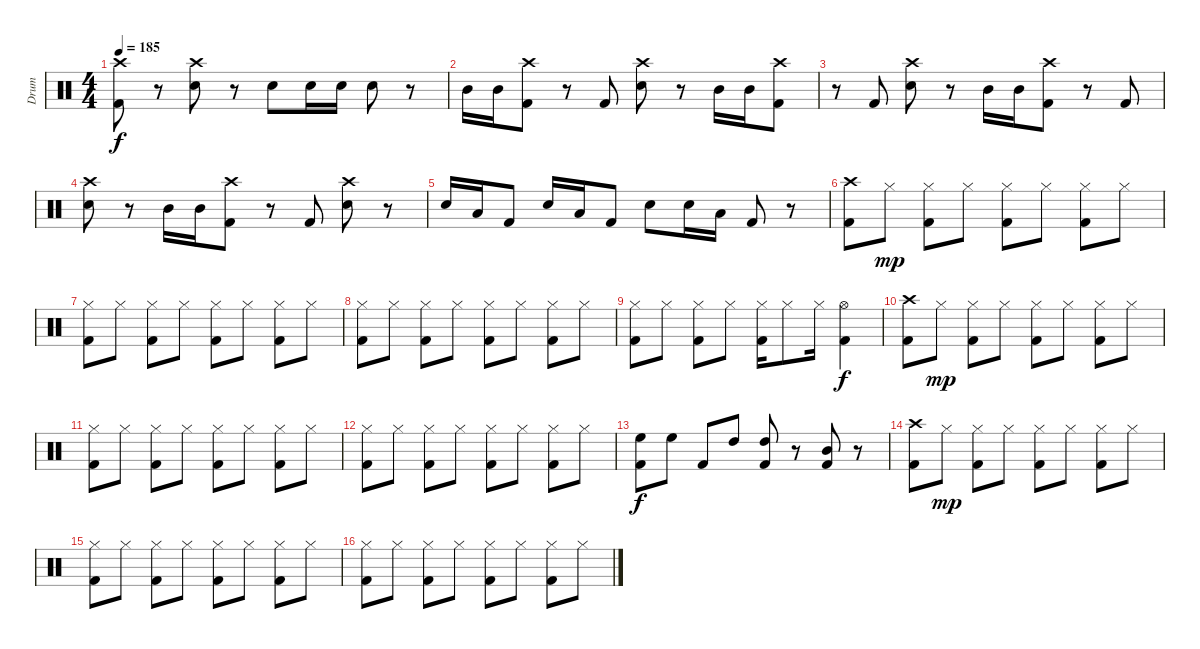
\track ("Drum" "Drum") {instrument percussion}
\staff {score}
\articulation defaults
\ts (4 4)
\tempo 185
\clef neutral
\ks c
("Crash high (hit)" "Kick (hit) 2").8{dy f} r.8 ("Crash high (hit)" "Electric Snare (hit)").8 r.8 "Electric Snare (hit)".8 "Electric Snare (hit)".16 "Electric Snare (hit)".16 "Electric Snare (hit)".8 r.8 |
"Mid Tom (hit)".16 "Mid Tom (hit)".16 ("Crash high (hit)" "Kick (hit) 2").8 r.8 "Kick (hit) 2".8 ("Crash high (hit)" "Electric Snare (hit)").8 r.8 "Mid Tom (hit)".16 "Mid Tom (hit)".16 ("Crash high (hit)" "Kick (hit) 2").8 |
r.8 "Kick (hit) 2".8 ("Crash high (hit)" "Electric Snare (hit)").8 r.8 "Mid Tom (hit)".16 "Mid Tom (hit)".16 ("Kick (hit) 2" "Crash high (hit)").8 r.8 "Kick (hit) 2".8 |
("Crash high (hit)" "Electric Snare (hit)").8 r.8 "Mid Tom (hit)".16 "Mid Tom (hit)".16 ("Crash high (hit)" "Kick (hit) 2").8 r.8 "Kick (hit) 2".8 ("Crash high (hit)" "Electric Snare (hit)").8 r.8 |
"Electric Snare (hit)".16 "Low Tom (hit)".16 "Kick (hit) 2".8 "Electric Snare (hit)".16 "Low Tom (hit)".16 "Kick (hit) 2".8 "Electric Snare (hit)".8 "Electric Snare (hit)".16 "Low Tom (hit)".16 "Kick (hit) 2".8 r.8 |
("Crash high (hit)" "Kick (hit) 2").8 "Hi-Hat (closed)".8{dy mp} ("Hi-Hat (closed)" "Kick (hit) 2").8 "Hi-Hat (closed)".8 ("Hi-Hat (closed)" "Kick (hit) 2").8 "Hi-Hat (closed)".8 ("Hi-Hat (closed)" "Kick (hit) 2").8 "Hi-Hat (closed)".8 |
("Hi-Hat (closed)" "Kick (hit) 2").8 "Hi-Hat (closed)".8 ("Hi-Hat (closed)" "Kick (hit) 2").8 "Hi-Hat (closed)".8 ("Hi-Hat (closed)" "Kick (hit) 2").8 "Hi-Hat (closed)".8 ("Hi-Hat (closed)" "Kick (hit) 2").8 "Hi-Hat (closed)".8 |
("Hi-Hat (closed)" "Kick (hit) 2").8 "Hi-Hat (closed)".8 ("Hi-Hat (closed)" "Kick (hit) 2").8 "Hi-Hat (closed)".8 ("Hi-Hat (closed)" "Kick (hit) 2").8 "Hi-Hat (closed)".8 ("Hi-Hat (closed)" "Kick (hit) 2").8 "Hi-Hat (closed)".8 |
("Hi-Hat (closed)" "Kick (hit) 2").8 "Hi-Hat (closed)".8 ("Hi-Hat (closed)" "Kick (hit) 2").8 "Hi-Hat (closed)".8 ("Kick (hit) 2" "Hi-Hat (closed)").16 "Hi-Hat (closed)".8 "Hi-Hat (closed)".16 ("Kick (hit) 2" "Hi-Hat (open)").4{dy f} |
("Crash high (hit)" "Kick (hit) 2").8 "Hi-Hat (closed)".8{dy mp} ("Hi-Hat (closed)" "Kick (hit) 2").8 "Hi-Hat (closed)".8 ("Hi-Hat (closed)" "Kick (hit) 2").8 "Hi-Hat (closed)".8 ("Hi-Hat (closed)" "Kick (hit) 2").8 "Hi-Hat (closed)".8 |
("Hi-Hat (closed)" "Kick (hit) 2").8 "Hi-Hat (closed)".8 ("Hi-Hat (closed)" "Kick (hit) 2").8 "Hi-Hat (closed)".8 ("Hi-Hat (closed)" "Kick (hit) 2").8 "Hi-Hat (closed)".8 ("Hi-Hat (closed)" "Kick (hit) 2").8 "Hi-Hat (closed)".8 |
("Hi-Hat (closed)" "Kick (hit) 2").8 "Hi-Hat (closed)".8 ("Hi-Hat (closed)" "Kick (hit) 2").8 "Hi-Hat (closed)".8 ("Hi-Hat (closed)" "Kick (hit) 2").8 "Hi-Hat (closed)".8 ("Hi-Hat (closed)" "Kick (hit) 2").8 "Hi-Hat (closed)".8 |
("High Floor Tom (hit)" "Kick (hit) 2").8{dy f} "High Floor Tom (hit)".8 "Kick (hit) 2".8 "High Tom (hit)".8 ("High Tom (hit)" "Kick (hit) 2").8 r.8 ("Mid Tom (hit)" "Kick (hit) 2").8 r.8 |
("Crash high (hit)" "Kick (hit) 2").8 "Hi-Hat (closed)".8{dy mp} ("Hi-Hat (closed)" "Kick (hit) 2").8 "Hi-Hat (closed)".8 ("Hi-Hat (closed)" "Kick (hit) 2").8 "Hi-Hat (closed)".8 ("Hi-Hat (closed)" "Kick (hit) 2").8 "Hi-Hat (closed)".8 |
("Hi-Hat (closed)" "Kick (hit) 2").8 "Hi-Hat (closed)".8 ("Hi-Hat (closed)" "Kick (hit) 2").8 "Hi-Hat (closed)".8 ("Hi-Hat (closed)" "Kick (hit) 2").8 "Hi-Hat (closed)".8 ("Hi-Hat (closed)" "Kick (hit) 2").8 "Hi-Hat (closed)".8 |
("Hi-Hat (closed)" "Kick (hit) 2").8 "Hi-Hat (closed)".8 ("Hi-Hat (closed)" "Kick (hit) 2").8 "Hi-Hat (closed)".8 ("Hi-Hat (closed)" "Kick (hit) 2").8 "Hi-Hat (closed)".8 ("Hi-Hat (closed)" "Kick (hit) 2").8 "Hi-Hat (closed)".8
